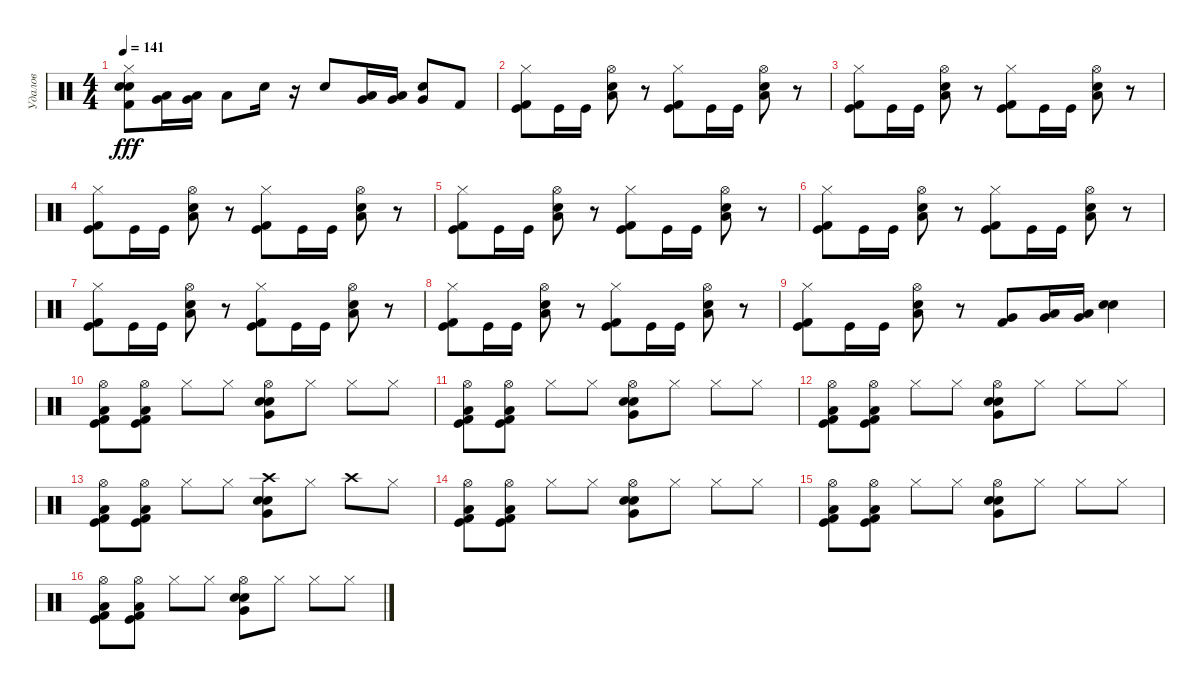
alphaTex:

\track ("Удалов" "Удалов") {instrument percussion}
\staff {score}
\articulation defaults
\ts (4 4)
\tempo 141
\clef neutral
\ks c
("Hi-Hat (closed)" "Electric Snare (hit)" "Snare (hit) 2" "Kick (hit) 2").8{dy fff} ("Low Tom (hit)" "Very Low Tom (hit)").16 ("Very Low Tom (hit)" "Low Floor Tom (hit)").16 "Low Tom (hit)".8 "Snare (hit) 2".16 r.16 "Snare (hit) 2".8 ("Low Tom (hit)" "Very Low Tom (hit)").16 ("Very Low Tom (hit)" "Low Floor Tom (hit)").16 ("Snare (hit) 2" "Very Low Tom (hit)").8 "Kick (hit) 2".8 |
("Hi-Hat (closed)" "Kick (hit)" "Kick (hit) 2").8 "Kick (hit)".16 "Kick (hit)".16 ("Hi-Hat (open)" "Low Tom (hit)" "Snare (hit) 2").8 r.8 ("Hi-Hat (closed)" "Kick (hit)" "Kick (hit) 2").8 "Kick (hit)".16 "Kick (hit)".16 ("Hi-Hat (open)" "Low Tom (hit)" "Snare (hit) 2").8 r.8 |
("Hi-Hat (closed)" "Kick (hit)" "Kick (hit) 2").8 "Kick (hit)".16 "Kick (hit)".16 ("Hi-Hat (open)" "Low Tom (hit)" "Snare (hit) 2").8 r.8 ("Hi-Hat (closed)" "Kick (hit)" "Kick (hit) 2").8 "Kick (hit)".16 "Kick (hit)".16 ("Hi-Hat (open)" "Low Tom (hit)" "Snare (hit) 2").8 r.8 |
("Hi-Hat (closed)" "Kick (hit)" "Kick (hit) 2").8 "Kick (hit)".16 "Kick (hit)".16 ("Hi-Hat (open)" "Low Tom (hit)" "Snare (hit) 2").8 r.8 ("Hi-Hat (closed)" "Kick (hit)" "Kick (hit) 2").8 "Kick (hit)".16 "Kick (hit)".16 ("Hi-Hat (open)" "Low Tom (hit)" "Snare (hit) 2").8 r.8 |
("Hi-Hat (closed)" "Kick (hit)" "Kick (hit) 2").8 "Kick (hit)".16 "Kick (hit)".16 ("Hi-Hat (open)" "Low Tom (hit)" "Snare (hit) 2").8 r.8 ("Hi-Hat (closed)" "Kick (hit)" "Kick (hit) 2").8 "Kick (hit)".16 "Kick (hit)".16 ("Hi-Hat (open)" "Low Tom (hit)" "Snare (hit) 2").8 r.8 |
("Hi-Hat (closed)" "Kick (hit)" "Kick (hit) 2").8 "Kick (hit)".16 "Kick (hit)".16 ("Hi-Hat (open)" "Low Tom (hit)" "Snare (hit) 2").8 r.8 ("Hi-Hat (closed)" "Kick (hit)" "Kick (hit) 2").8 "Kick (hit)".16 "Kick (hit)".16 ("Hi-Hat (open)" "Low Tom (hit)" "Snare (hit) 2").8 r.8 |
("Hi-Hat (closed)" "Kick (hit)" "Kick (hit) 2").8 "Kick (hit)".16 "Kick (hit)".16 ("Hi-Hat (open)" "Low Tom (hit)" "Snare (hit) 2").8 r.8 ("Hi-Hat (closed)" "Kick (hit)" "Kick (hit) 2").8 "Kick (hit)".16 "Kick (hit)".16 ("Hi-Hat (open)" "Low Tom (hit)" "Snare (hit) 2").8 r.8 |
("Hi-Hat (closed)" "Kick (hit)" "Kick (hit) 2").8 "Kick (hit)".16 "Kick (hit)".16 ("Hi-Hat (open)" "Low Tom (hit)" "Snare (hit) 2").8 r.8 ("Hi-Hat (closed)" "Kick (hit)" "Kick (hit) 2").8 "Kick (hit)".16 "Kick (hit)".16 ("Hi-Hat (open)" "Low Tom (hit)" "Snare (hit) 2").8 r.8 |
("Hi-Hat (closed)" "Kick (hit) 2" "Kick (hit)").8 "Kick (hit)".16 "Kick (hit)".16 ("Hi-Hat (open)" "Low Tom (hit)" "Snare (hit) 2").8 r.8 ("Very Low Tom (hit)" "Kick (hit) 2").8 ("Low Floor Tom (hit)" "Very Low Tom (hit)").16 ("Very Low Tom (hit)" "Low Tom (hit)").16 ("Electric Snare (hit)" "Snare (hit) 2").4 |
("Hi-Hat (open)" "Low Floor Tom (hit)" "Kick (hit)" "Kick (hit) 2").8 ("Hi-Hat (open)" "Low Floor Tom (hit)" "Kick (hit)" "Kick (hit) 2").8 "Hi-Hat (closed)".8 "Hi-Hat (closed)".8 ("Hi-Hat (open)" "Very Low Tom (hit)" "Snare (hit) 2" "Electric Snare (hit)").8 "Hi-Hat (closed)".8 "Hi-Hat (closed)".8 "Hi-Hat (closed)".8 |
("Hi-Hat (open)" "Low Floor Tom (hit)" "Kick (hit)" "Kick (hit) 2").8 ("Hi-Hat (open)" "Low Floor Tom (hit)" "Kick (hit)" "Kick (hit) 2").8 "Hi-Hat (closed)".8 "Hi-Hat (closed)".8 ("Hi-Hat (open)" "Very Low Tom (hit)" "Snare (hit) 2" "Electric Snare (hit)").8 "Hi-Hat (closed)".8 "Hi-Hat (closed)".8 "Hi-Hat (closed)".8 |
("Hi-Hat (open)" "Low Floor Tom (hit)" "Kick (hit)" "Kick (hit) 2").8 ("Hi-Hat (open)" "Low Floor Tom (hit)" "Kick (hit)" "Kick (hit) 2").8 "Hi-Hat (closed)".8 "Hi-Hat (closed)".8 ("Hi-Hat (open)" "Very Low Tom (hit)" "Snare (hit) 2" "Electric Snare (hit)").8 "Hi-Hat (closed)".8 "Hi-Hat (closed)".8 "Hi-Hat (closed)".8 |
("Hi-Hat (open)" "Low Floor Tom (hit)" "Kick (hit)" "Kick (hit) 2").8 ("Hi-Hat (open)" "Low Floor Tom (hit)" "Kick (hit)" "Kick (hit) 2").8 "Hi-Hat (closed)".8 "Hi-Hat (closed)".8 ("Crash high (hit)" "Very Low Tom (hit)" "Snare (hit) 2" "Electric Snare (hit)").8 "Hi-Hat (closed)".8 "Crash high (hit)".8 "Hi-Hat (closed)".8 |
("Hi-Hat (open)" "Low Floor Tom (hit)" "Kick (hit)" "Kick (hit) 2").8 ("Hi-Hat (open)" "Low Floor Tom (hit)" "Kick (hit)" "Kick (hit) 2").8 "Hi-Hat (closed)".8 "Hi-Hat (closed)".8 ("Hi-Hat (open)" "Very Low Tom (hit)" "Snare (hit) 2" "Electric Snare (hit)").8 "Hi-Hat (closed)".8 "Hi-Hat (closed)".8 "Hi-Hat (closed)".8 |
("Hi-Hat (open)" "Low Floor Tom (hit)" "Kick (hit)" "Kick (hit) 2").8 ("Hi-Hat (open)" "Low Floor Tom (hit)" "Kick (hit)" "Kick (hit) 2").8 "Hi-Hat (closed)".8 "Hi-Hat (closed)".8 ("Hi-Hat (open)" "Very Low Tom (hit)" "Snare (hit) 2" "Electric Snare (hit)").8 "Hi-Hat (closed)".8 "Hi-Hat (closed)".8 "Hi-Hat (closed)".8 |
("Hi-Hat (open)" "Low Floor Tom (hit)" "Kick (hit)" "Kick (hit) 2").8 ("Hi-Hat (open)" "Low Floor Tom (hit)" "Kick (hit)" "Kick (hit) 2").8 "Hi-Hat (closed)".8 "Hi-Hat (closed)".8 ("Hi-Hat (open)" "Very Low Tom (hit)" "Snare (hit) 2" "Electric Snare (hit)").8 "Hi-Hat (closed)".8 "Hi-Hat (closed)".8 "Hi-Hat (closed)".8
